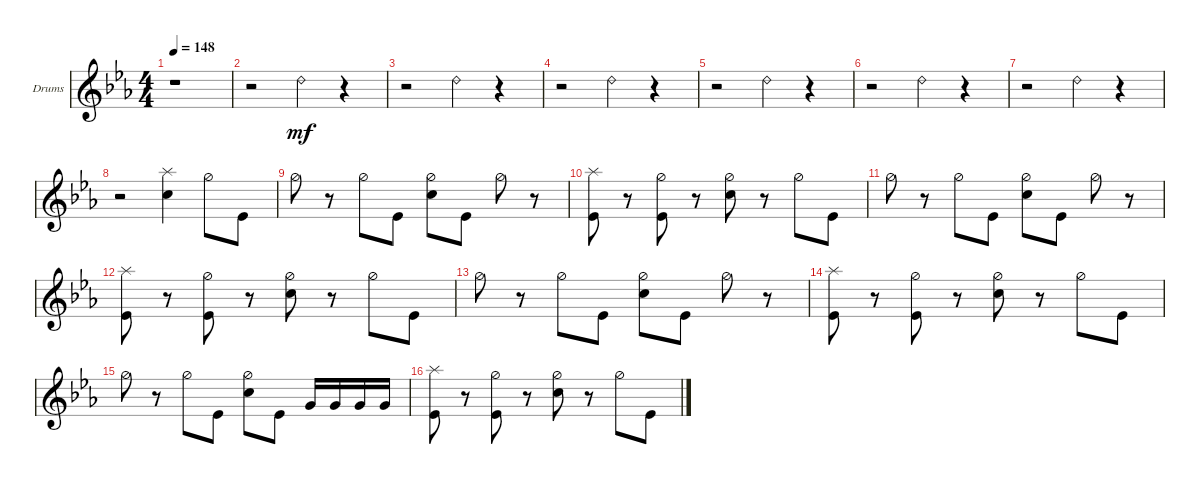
\defaultSystemsLayout 4
\bracketExtendMode groupsimilarinstruments
\firstSystemTrackNameOrientation horizontal
\otherSystemsTrackNameOrientation horizontal
\track ("Drumkit" "Drums") {instrument percussion}
\staff {score}
\articulation defaults
\ts (4 4)
\tempo 148
\clef g2
\ks cminor
r.1{dy mf} |
r.2 "Ride (bell) 2".4 r.4 |
r.2 "Ride (bell) 2".4 r.4 |
r.2 "Ride (bell) 2".4 r.4 |
r.2 "Ride (bell) 2".4 r.4 |
r.2 "Ride (bell) 2".4 r.4 |
r.2 "Ride (bell) 2".4 r.4 |
r.2 ("Snare (hit) 2" "Splash (hit)").4 "Hi-Hat (half)".8 "Kick (hit)".8 |
"Hi-Hat (half)".8 r.8 "Hi-Hat (half)".8 "Kick (hit)".8 ("Snare (hit) 2" "Hi-Hat (half)").8 "Kick (hit)".8 "Hi-Hat (half)".8 r.8 |
("Splash (hit)" "Kick (hit)").8 r.8 ("Hi-Hat (half)" "Kick (hit)").8 r.8 ("Hi-Hat (half)" "Snare (hit) 2").8 r.8 "Hi-Hat (half)".8 "Kick (hit)".8 |
"Hi-Hat (half)".8 r.8 "Hi-Hat (half)".8 "Kick (hit)".8 ("Hi-Hat (half)" "Snare (hit) 2").8 "Kick (hit)".8 "Hi-Hat (half)".8 r.8 |
("Splash (hit)" "Kick (hit)").8 r.8 ("Hi-Hat (half)" "Kick (hit)").8 r.8 ("Hi-Hat (half)" "Snare (hit) 2").8 r.8 "Hi-Hat (half)".8 "Kick (hit)".8 |
"Hi-Hat (half)".8 r.8 "Hi-Hat (half)".8 "Kick (hit)".8 ("Hi-Hat (half)" "Snare (hit) 2").8 "Kick (hit)".8 "Hi-Hat (half)".8 r.8 |
("Splash (hit)" "Kick (hit)").8 r.8 ("Hi-Hat (half)" "Kick (hit)").8 r.8 ("Hi-Hat (half)" "Snare (hit) 2").8 r.8 "Hi-Hat (half)".8 "Kick (hit)".8 |
"Hi-Hat (half)".8 r.8 "Hi-Hat (half)".8 "Kick (hit)".8 ("Hi-Hat (half)" "Snare (hit) 2").8 "Kick (hit)".8 "Very Low Tom (hit)".16 "Very Low Tom (hit)".16 "Very Low Tom (hit)".16 "Very Low Tom (hit)".16 |
("Splash (hit)" "Kick (hit)").8 r.8 ("Hi-Hat (half)" "Kick (hit)").8 r.8 ("Hi-Hat (half)" "Snare (hit) 2").8 r.8 "Hi-Hat (half)".8 "Kick (hit)".8
